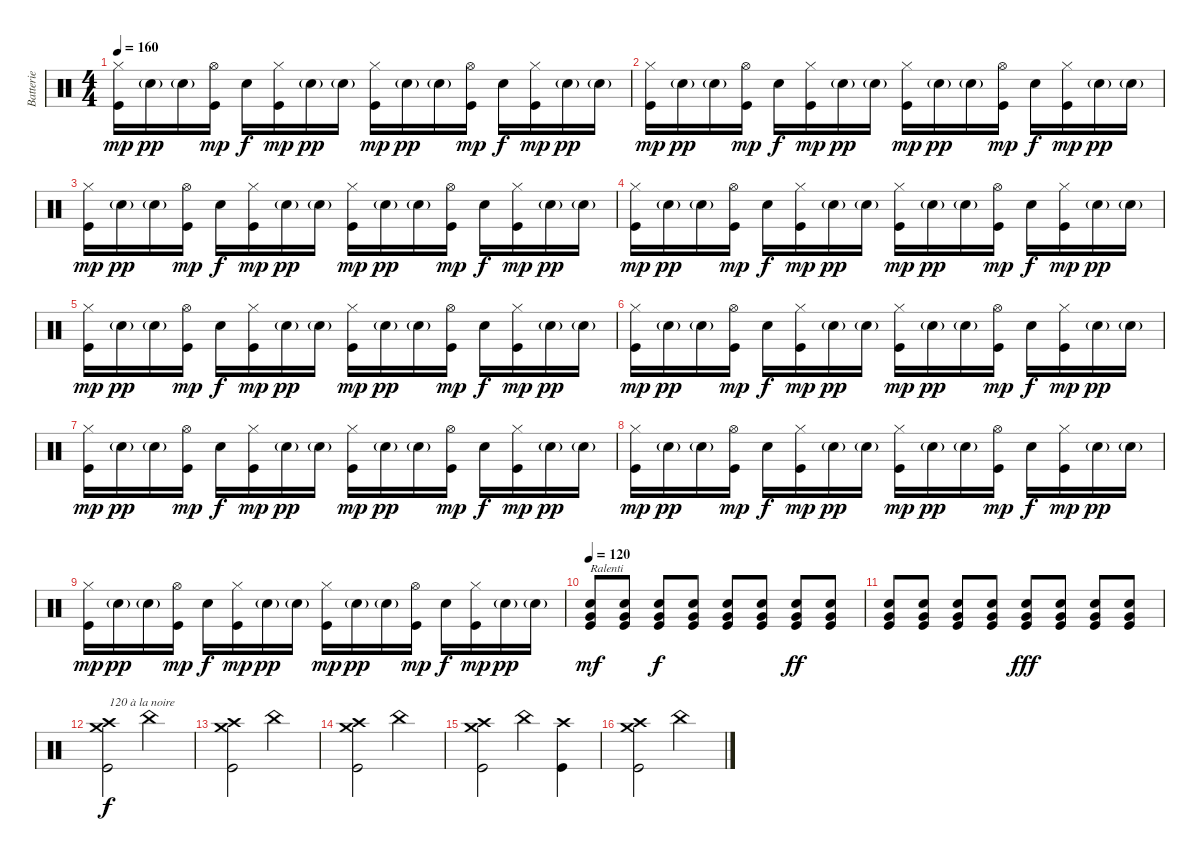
\track ("Batterie" "Batterie") {instrument percussion}
\staff {score}
\articulation defaults
\ts (4 4)
\tempo 160
\clef neutral
\ks c
("Hi-Hat (closed)" "Kick (hit)").16{dy mp} "Electric Snare (hit)"{g}.16{dy pp} "Electric Snare (hit)"{g}.16 ("Hi-Hat (open)" "Kick (hit)").16{dy mp} "Electric Snare (hit)".16{dy f} ("Hi-Hat (closed)" "Kick (hit)").16{dy mp} "Electric Snare (hit)"{g}.16{dy pp} "Electric Snare (hit)"{g}.16 ("Hi-Hat (closed)" "Kick (hit)").16{dy mp} "Electric Snare (hit)"{g}.16{dy pp} "Electric Snare (hit)"{g}.16 ("Hi-Hat (open)" "Kick (hit)").16{dy mp} "Electric Snare (hit)".16{dy f} ("Hi-Hat (closed)" "Kick (hit)").16{dy mp} "Electric Snare (hit)"{g}.16{dy pp} "Electric Snare (hit)"{g}.16 |
("Hi-Hat (closed)" "Kick (hit)").16{dy mp} "Electric Snare (hit)"{g}.16{dy pp} "Electric Snare (hit)"{g}.16 ("Hi-Hat (open)" "Kick (hit)").16{dy mp} "Electric Snare (hit)".16{dy f} ("Hi-Hat (closed)" "Kick (hit)").16{dy mp} "Electric Snare (hit)"{g}.16{dy pp} "Electric Snare (hit)"{g}.16 ("Hi-Hat (closed)" "Kick (hit)").16{dy mp} "Electric Snare (hit)"{g}.16{dy pp} "Electric Snare (hit)"{g}.16 ("Hi-Hat (open)" "Kick (hit)").16{dy mp} "Electric Snare (hit)".16{dy f} ("Hi-Hat (closed)" "Kick (hit)").16{dy mp} "Electric Snare (hit)"{g}.16{dy pp} "Electric Snare (hit)"{g}.16 |
("Hi-Hat (closed)" "Kick (hit)").16{dy mp} "Electric Snare (hit)"{g}.16{dy pp} "Electric Snare (hit)"{g}.16 ("Hi-Hat (open)" "Kick (hit)").16{dy mp} "Electric Snare (hit)".16{dy f} ("Hi-Hat (closed)" "Kick (hit)").16{dy mp} "Electric Snare (hit)"{g}.16{dy pp} "Electric Snare (hit)"{g}.16 ("Hi-Hat (closed)" "Kick (hit)").16{dy mp} "Electric Snare (hit)"{g}.16{dy pp} "Electric Snare (hit)"{g}.16 ("Hi-Hat (open)" "Kick (hit)").16{dy mp} "Electric Snare (hit)".16{dy f} ("Hi-Hat (closed)" "Kick (hit)").16{dy mp} "Electric Snare (hit)"{g}.16{dy pp} "Electric Snare (hit)"{g}.16 |
("Hi-Hat (closed)" "Kick (hit)").16{dy mp} "Electric Snare (hit)"{g}.16{dy pp} "Electric Snare (hit)"{g}.16 ("Hi-Hat (open)" "Kick (hit)").16{dy mp} "Electric Snare (hit)".16{dy f} ("Hi-Hat (closed)" "Kick (hit)").16{dy mp} "Electric Snare (hit)"{g}.16{dy pp} "Electric Snare (hit)"{g}.16 ("Hi-Hat (closed)" "Kick (hit)").16{dy mp} "Electric Snare (hit)"{g}.16{dy pp} "Electric Snare (hit)"{g}.16 ("Hi-Hat (open)" "Kick (hit)").16{dy mp} "Electric Snare (hit)".16{dy f} ("Hi-Hat (closed)" "Kick (hit)").16{dy mp} "Electric Snare (hit)"{g}.16{dy pp} "Electric Snare (hit)"{g}.16 |
("Hi-Hat (closed)" "Kick (hit)").16{dy mp} "Electric Snare (hit)"{g}.16{dy pp} "Electric Snare (hit)"{g}.16 ("Hi-Hat (open)" "Kick (hit)").16{dy mp} "Electric Snare (hit)".16{dy f} ("Hi-Hat (closed)" "Kick (hit)").16{dy mp} "Electric Snare (hit)"{g}.16{dy pp} "Electric Snare (hit)"{g}.16 ("Hi-Hat (closed)" "Kick (hit)").16{dy mp} "Electric Snare (hit)"{g}.16{dy pp} "Electric Snare (hit)"{g}.16 ("Hi-Hat (open)" "Kick (hit)").16{dy mp} "Electric Snare (hit)".16{dy f} ("Hi-Hat (closed)" "Kick (hit)").16{dy mp} "Electric Snare (hit)"{g}.16{dy pp} "Electric Snare (hit)"{g}.16 |
("Hi-Hat (closed)" "Kick (hit)").16{dy mp} "Electric Snare (hit)"{g}.16{dy pp} "Electric Snare (hit)"{g}.16 ("Hi-Hat (open)" "Kick (hit)").16{dy mp} "Electric Snare (hit)".16{dy f} ("Hi-Hat (closed)" "Kick (hit)").16{dy mp} "Electric Snare (hit)"{g}.16{dy pp} "Electric Snare (hit)"{g}.16 ("Hi-Hat (closed)" "Kick (hit)").16{dy mp} "Electric Snare (hit)"{g}.16{dy pp} "Electric Snare (hit)"{g}.16 ("Hi-Hat (open)" "Kick (hit)").16{dy mp} "Electric Snare (hit)".16{dy f} ("Hi-Hat (closed)" "Kick (hit)").16{dy mp} "Electric Snare (hit)"{g}.16{dy pp} "Electric Snare (hit)"{g}.16 |
("Hi-Hat (closed)" "Kick (hit)").16{dy mp} "Electric Snare (hit)"{g}.16{dy pp} "Electric Snare (hit)"{g}.16 ("Hi-Hat (open)" "Kick (hit)").16{dy mp} "Electric Snare (hit)".16{dy f} ("Hi-Hat (closed)" "Kick (hit)").16{dy mp} "Electric Snare (hit)"{g}.16{dy pp} "Electric Snare (hit)"{g}.16 ("Hi-Hat (closed)" "Kick (hit)").16{dy mp} "Electric Snare (hit)"{g}.16{dy pp} "Electric Snare (hit)"{g}.16 ("Hi-Hat (open)" "Kick (hit)").16{dy mp} "Electric Snare (hit)".16{dy f} ("Hi-Hat (closed)" "Kick (hit)").16{dy mp} "Electric Snare (hit)"{g}.16{dy pp} "Electric Snare (hit)"{g}.16 |
("Hi-Hat (closed)" "Kick (hit)").16{dy mp} "Electric Snare (hit)"{g}.16{dy pp} "Electric Snare (hit)"{g}.16 ("Hi-Hat (open)" "Kick (hit)").16{dy mp} "Electric Snare (hit)".16{dy f} ("Hi-Hat (closed)" "Kick (hit)").16{dy mp} "Electric Snare (hit)"{g}.16{dy pp} "Electric Snare (hit)"{g}.16 ("Hi-Hat (closed)" "Kick (hit)").16{dy mp} "Electric Snare (hit)"{g}.16{dy pp} "Electric Snare (hit)"{g}.16 ("Hi-Hat (open)" "Kick (hit)").16{dy mp} "Electric Snare (hit)".16{dy f} ("Hi-Hat (closed)" "Kick (hit)").16{dy mp} "Electric Snare (hit)"{g}.16{dy pp} "Electric Snare (hit)"{g}.16 |
("Hi-Hat (closed)" "Kick (hit)").16{dy mp} "Electric Snare (hit)"{g}.16{dy pp} "Electric Snare (hit)"{g}.16 ("Hi-Hat (open)" "Kick (hit)").16{dy mp} "Electric Snare (hit)".16{dy f} ("Hi-Hat (closed)" "Kick (hit)").16{dy mp} "Electric Snare (hit)"{g}.16{dy pp} "Electric Snare (hit)"{g}.16 ("Hi-Hat (closed)" "Kick (hit)").16{dy mp} "Electric Snare (hit)"{g}.16{dy pp} "Electric Snare (hit)"{g}.16 ("Hi-Hat (open)" "Kick (hit)").16{dy mp} "Electric Snare (hit)".16{dy f} ("Hi-Hat (closed)" "Kick (hit)").16{dy mp} "Electric Snare (hit)"{g}.16{dy pp} "Electric Snare (hit)"{g}.16 |
\tempo 120
("Electric Snare (hit)" "Very Low Tom (hit)" "Kick (hit)").8{txt "Ralenti" dy mf} ("Electric Snare (hit)" "Very Low Tom (hit)" "Kick (hit)").8 ("Electric Snare (hit)" "Very Low Tom (hit)" "Kick (hit)").8{dy f} ("Electric Snare (hit)" "Very Low Tom (hit)" "Kick (hit)").8 ("Electric Snare (hit)" "Very Low Tom (hit)" "Kick (hit)").8 ("Electric Snare (hit)" "Very Low Tom (hit)" "Kick (hit)").8 ("Electric Snare (hit)" "Very Low Tom (hit)" "Kick (hit)").8{dy ff} ("Electric Snare (hit)" "Very Low Tom (hit)" "Kick (hit)").8 |
("Electric Snare (hit)" "Very Low Tom (hit)" "Kick (hit)").8 ("Electric Snare (hit)" "Very Low Tom (hit)" "Kick (hit)").8 ("Electric Snare (hit)" "Very Low Tom (hit)" "Kick (hit)").8 ("Electric Snare (hit)" "Very Low Tom (hit)" "Kick (hit)").8 ("Electric Snare (hit)" "Very Low Tom (hit)" "Kick (hit)").8{dy fff} ("Electric Snare (hit)" "Very Low Tom (hit)" "Kick (hit)").8 ("Electric Snare (hit)" "Very Low Tom (hit)" "Kick (hit)").8 ("Electric Snare (hit)" "Very Low Tom (hit)" "Kick (hit)").8 |
("Crash high (hit)" "Crash medium (hit)" "Kick (hit)").2{txt "120 à la noire" dy f} "China (hit)".2 |
("Crash high (hit)" "Crash medium (hit)" "Kick (hit)").2 "China (hit)".2 |
("Crash high (hit)" "Crash medium (hit)" "Kick (hit)").2 "China (hit)".2 |
("Crash high (hit)" "Crash medium (hit)" "Kick (hit)").2 "China (hit)".4 ("Crash high (hit)" "Kick (hit)").4 |
("Crash high (hit)" "Crash medium (hit)" "Kick (hit)").2 "China (hit)".2
